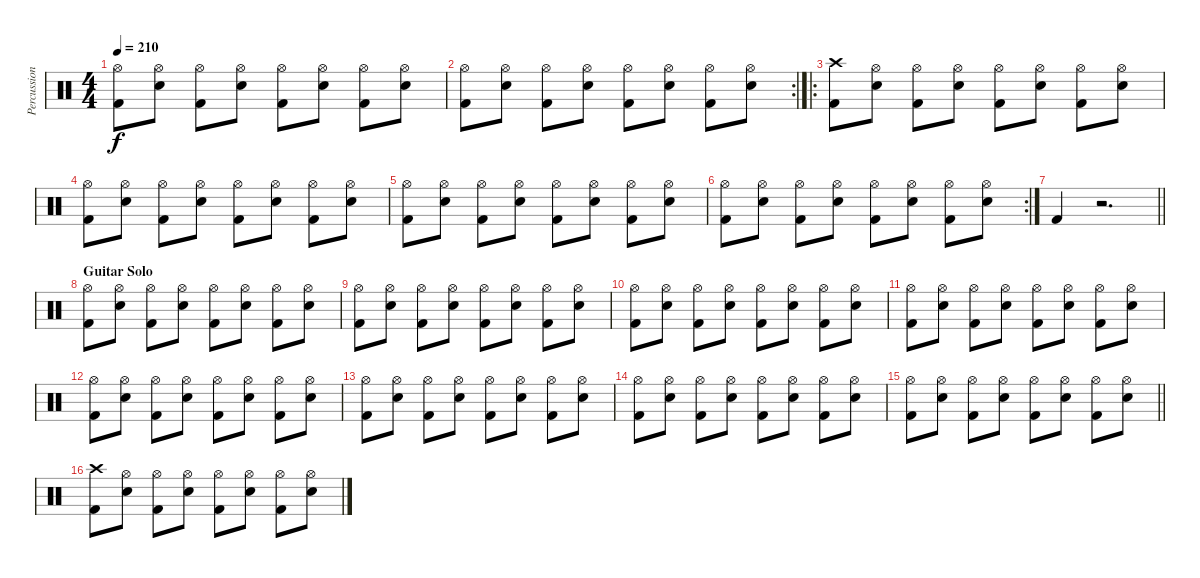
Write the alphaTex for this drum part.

\track ("Percussion" "Percussion") {instrument percussion}
\staff {score}
\articulation defaults
\ts (4 4)
\tempo 210
\clef neutral
\ks c
("Hi-Hat (open)" "Kick (hit) 2").8{dy f} ("Hi-Hat (open)" "Electric Snare (hit)").8 ("Hi-Hat (open)" "Kick (hit) 2").8 ("Hi-Hat (open)" "Electric Snare (hit)").8 ("Hi-Hat (open)" "Kick (hit) 2").8 ("Hi-Hat (open)" "Electric Snare (hit)").8 ("Hi-Hat (open)" "Kick (hit) 2").8 ("Hi-Hat (open)" "Electric Snare (hit)").8 |
\rc 2
("Hi-Hat (open)" "Kick (hit) 2").8 ("Hi-Hat (open)" "Electric Snare (hit)").8 ("Hi-Hat (open)" "Kick (hit) 2").8 ("Hi-Hat (open)" "Electric Snare (hit)").8 ("Hi-Hat (open)" "Kick (hit) 2").8 ("Hi-Hat (open)" "Electric Snare (hit)").8 ("Hi-Hat (open)" "Kick (hit) 2").8 ("Hi-Hat (open)" "Electric Snare (hit)").8 |
\ro
("Crash high (hit)" "Kick (hit) 2").8 ("Hi-Hat (open)" "Electric Snare (hit)").8 ("Hi-Hat (open)" "Kick (hit) 2").8 ("Hi-Hat (open)" "Electric Snare (hit)").8 ("Hi-Hat (open)" "Kick (hit) 2").8 ("Hi-Hat (open)" "Electric Snare (hit)").8 ("Hi-Hat (open)" "Kick (hit) 2").8 ("Hi-Hat (open)" "Electric Snare (hit)").8 |
("Hi-Hat (open)" "Kick (hit) 2").8 ("Hi-Hat (open)" "Electric Snare (hit)").8 ("Hi-Hat (open)" "Kick (hit) 2").8 ("Hi-Hat (open)" "Electric Snare (hit)").8 ("Hi-Hat (open)" "Kick (hit) 2").8 ("Hi-Hat (open)" "Electric Snare (hit)").8 ("Hi-Hat (open)" "Kick (hit) 2").8 ("Hi-Hat (open)" "Electric Snare (hit)").8 |
("Hi-Hat (open)" "Kick (hit) 2").8 ("Hi-Hat (open)" "Electric Snare (hit)").8 ("Hi-Hat (open)" "Kick (hit) 2").8 ("Hi-Hat (open)" "Electric Snare (hit)").8 ("Hi-Hat (open)" "Kick (hit) 2").8 ("Hi-Hat (open)" "Electric Snare (hit)").8 ("Hi-Hat (open)" "Kick (hit) 2").8 ("Hi-Hat (open)" "Electric Snare (hit)").8 |
\rc 2
("Hi-Hat (open)" "Kick (hit) 2").8 ("Hi-Hat (open)" "Electric Snare (hit)").8 ("Hi-Hat (open)" "Kick (hit) 2").8 ("Hi-Hat (open)" "Electric Snare (hit)").8 ("Hi-Hat (open)" "Kick (hit) 2").8 ("Hi-Hat (open)" "Electric Snare (hit)").8 ("Hi-Hat (open)" "Kick (hit) 2").8 ("Hi-Hat (open)" "Electric Snare (hit)").8 |
\barLineRight lightlight "Kick (hit) 2".4
r.2{d} |
\section ("" "Guitar Solo")
("Hi-Hat (open)" "Kick (hit) 2").8 ("Hi-Hat (open)" "Electric Snare (hit)").8 ("Hi-Hat (open)" "Kick (hit) 2").8 ("Hi-Hat (open)" "Electric Snare (hit)").8 ("Hi-Hat (open)" "Kick (hit) 2").8 ("Hi-Hat (open)" "Electric Snare (hit)").8 ("Hi-Hat (open)" "Kick (hit) 2").8 ("Hi-Hat (open)" "Electric Snare (hit)").8 |
("Hi-Hat (open)" "Kick (hit) 2").8 ("Hi-Hat (open)" "Electric Snare (hit)").8 ("Hi-Hat (open)" "Kick (hit) 2").8 ("Hi-Hat (open)" "Electric Snare (hit)").8 ("Hi-Hat (open)" "Kick (hit) 2").8 ("Hi-Hat (open)" "Electric Snare (hit)").8 ("Hi-Hat (open)" "Kick (hit) 2").8 ("Hi-Hat (open)" "Electric Snare (hit)").8 |
("Hi-Hat (open)" "Kick (hit) 2").8 ("Hi-Hat (open)" "Electric Snare (hit)").8 ("Hi-Hat (open)" "Kick (hit) 2").8 ("Hi-Hat (open)" "Electric Snare (hit)").8 ("Hi-Hat (open)" "Kick (hit) 2").8 ("Hi-Hat (open)" "Electric Snare (hit)").8 ("Hi-Hat (open)" "Kick (hit) 2").8 ("Hi-Hat (open)" "Electric Snare (hit)").8 |
("Hi-Hat (open)" "Kick (hit) 2").8 ("Hi-Hat (open)" "Electric Snare (hit)").8 ("Hi-Hat (open)" "Kick (hit) 2").8 ("Hi-Hat (open)" "Electric Snare (hit)").8 ("Hi-Hat (open)" "Kick (hit) 2").8 ("Hi-Hat (open)" "Electric Snare (hit)").8 ("Hi-Hat (open)" "Kick (hit) 2").8 ("Hi-Hat (open)" "Electric Snare (hit)").8 |
("Hi-Hat (open)" "Kick (hit) 2").8 ("Hi-Hat (open)" "Electric Snare (hit)").8 ("Hi-Hat (open)" "Kick (hit) 2").8 ("Hi-Hat (open)" "Electric Snare (hit)").8 ("Hi-Hat (open)" "Kick (hit) 2").8 ("Hi-Hat (open)" "Electric Snare (hit)").8 ("Hi-Hat (open)" "Kick (hit) 2").8 ("Hi-Hat (open)" "Electric Snare (hit)").8 |
("Hi-Hat (open)" "Kick (hit) 2").8 ("Hi-Hat (open)" "Electric Snare (hit)").8 ("Hi-Hat (open)" "Kick (hit) 2").8 ("Hi-Hat (open)" "Electric Snare (hit)").8 ("Hi-Hat (open)" "Kick (hit) 2").8 ("Hi-Hat (open)" "Electric Snare (hit)").8 ("Hi-Hat (open)" "Kick (hit) 2").8 ("Hi-Hat (open)" "Electric Snare (hit)").8 |
("Hi-Hat (open)" "Kick (hit) 2").8 ("Hi-Hat (open)" "Electric Snare (hit)").8 ("Hi-Hat (open)" "Kick (hit) 2").8 ("Hi-Hat (open)" "Electric Snare (hit)").8 ("Hi-Hat (open)" "Kick (hit) 2").8 ("Hi-Hat (open)" "Electric Snare (hit)").8 ("Hi-Hat (open)" "Kick (hit) 2").8 ("Hi-Hat (open)" "Electric Snare (hit)").8 |
\barLineRight lightlight
("Hi-Hat (open)" "Kick (hit) 2").8 ("Hi-Hat (open)" "Electric Snare (hit)").8 ("Hi-Hat (open)" "Kick (hit) 2").8 ("Hi-Hat (open)" "Electric Snare (hit)").8 ("Hi-Hat (open)" "Kick (hit) 2").8 ("Hi-Hat (open)" "Electric Snare (hit)").8 ("Hi-Hat (open)" "Kick (hit) 2").8 ("Hi-Hat (open)" "Electric Snare (hit)").8 |
("Crash high (hit)" "Kick (hit) 2").8 ("Hi-Hat (open)" "Electric Snare (hit)").8 ("Hi-Hat (open)" "Kick (hit) 2").8 ("Hi-Hat (open)" "Electric Snare (hit)").8 ("Hi-Hat (open)" "Kick (hit) 2").8 ("Hi-Hat (open)" "Electric Snare (hit)").8 ("Hi-Hat (open)" "Kick (hit) 2").8 ("Hi-Hat (open)" "Electric Snare (hit)").8
